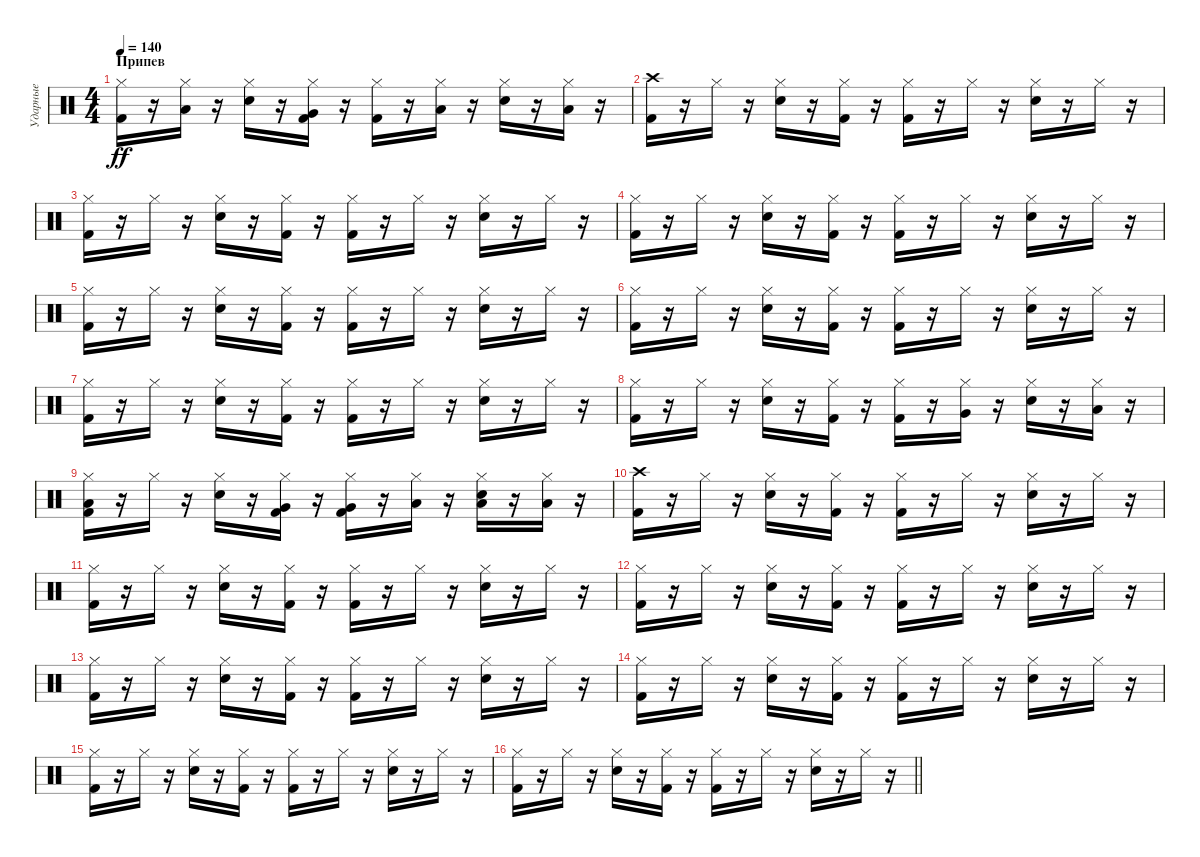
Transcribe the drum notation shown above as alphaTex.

\track ("Ударные" "Ударные") {instrument percussion}
\staff {score}
\articulation defaults
\ts (4 4)
\section ("" "Припев")
\tempo 140
\clef neutral
\ks c
("Hi-Hat (closed)" "Kick (hit) 2").16{dy ff} r.16 ("Hi-Hat (closed)" "Low Tom (hit)").16 r.16 ("Hi-Hat (closed)" "Snare (hit) 2").16 r.16 ("Hi-Hat (closed)" "Kick (hit) 2" "Very Low Tom (hit)").16 r.16 ("Hi-Hat (closed)" "Kick (hit) 2").16 r.16 ("Hi-Hat (closed)" "Low Floor Tom (hit)").16 r.16 ("Hi-Hat (closed)" "Snare (hit) 2").16 r.16 ("Hi-Hat (closed)" "Low Floor Tom (hit)").16 r.16 |
("Crash high (hit)" "Kick (hit) 2").16 r.16 "Hi-Hat (closed)".16 r.16 ("Hi-Hat (closed)" "Snare (hit) 2").16 r.16 ("Hi-Hat (closed)" "Kick (hit) 2").16 r.16 ("Hi-Hat (closed)" "Kick (hit) 2").16 r.16 "Hi-Hat (closed)".16 r.16 ("Hi-Hat (closed)" "Snare (hit) 2").16 r.16 "Hi-Hat (closed)".16 r.16 |
("Hi-Hat (closed)" "Kick (hit) 2").16 r.16 "Hi-Hat (closed)".16 r.16 ("Hi-Hat (closed)" "Snare (hit) 2").16 r.16 ("Hi-Hat (closed)" "Kick (hit) 2").16 r.16 ("Hi-Hat (closed)" "Kick (hit) 2").16 r.16 "Hi-Hat (closed)".16 r.16 ("Hi-Hat (closed)" "Snare (hit) 2").16 r.16 "Hi-Hat (closed)".16 r.16 |
("Hi-Hat (closed)" "Kick (hit) 2").16 r.16 "Hi-Hat (closed)".16 r.16 ("Hi-Hat (closed)" "Snare (hit) 2").16 r.16 ("Hi-Hat (closed)" "Kick (hit) 2").16 r.16 ("Hi-Hat (closed)" "Kick (hit) 2").16 r.16 "Hi-Hat (closed)".16 r.16 ("Hi-Hat (closed)" "Snare (hit) 2").16 r.16 "Hi-Hat (closed)".16 r.16 |
("Hi-Hat (closed)" "Kick (hit) 2").16 r.16 "Hi-Hat (closed)".16 r.16 ("Hi-Hat (closed)" "Snare (hit) 2").16 r.16 ("Hi-Hat (closed)" "Kick (hit) 2").16 r.16 ("Hi-Hat (closed)" "Kick (hit) 2").16 r.16 "Hi-Hat (closed)".16 r.16 ("Hi-Hat (closed)" "Snare (hit) 2").16 r.16 "Hi-Hat (closed)".16 r.16 |
("Hi-Hat (closed)" "Kick (hit) 2").16 r.16 "Hi-Hat (closed)".16 r.16 ("Hi-Hat (closed)" "Snare (hit) 2").16 r.16 ("Hi-Hat (closed)" "Kick (hit) 2").16 r.16 ("Hi-Hat (closed)" "Kick (hit) 2").16 r.16 "Hi-Hat (closed)".16 r.16 ("Hi-Hat (closed)" "Snare (hit) 2").16 r.16 "Hi-Hat (closed)".16 r.16 |
("Hi-Hat (closed)" "Kick (hit) 2").16 r.16 "Hi-Hat (closed)".16 r.16 ("Hi-Hat (closed)" "Snare (hit) 2").16 r.16 ("Hi-Hat (closed)" "Kick (hit) 2").16 r.16 ("Hi-Hat (closed)" "Kick (hit) 2").16 r.16 "Hi-Hat (closed)".16 r.16 ("Hi-Hat (closed)" "Snare (hit) 2").16 r.16 "Hi-Hat (closed)".16 r.16 |
("Hi-Hat (closed)" "Kick (hit) 2").16 r.16 "Hi-Hat (closed)".16 r.16 ("Hi-Hat (closed)" "Snare (hit) 2").16 r.16 ("Hi-Hat (closed)" "Kick (hit) 2").16 r.16 ("Hi-Hat (closed)" "Kick (hit) 2").16 r.16 ("Hi-Hat (closed)" "Very Low Tom (hit)").16 r.16 ("Hi-Hat (closed)" "Snare (hit) 2").16 r.16 ("Hi-Hat (closed)" "Low Tom (hit)").16 r.16 |
("Hi-Hat (closed)" "Kick (hit) 2" "Low Tom (hit)").16 r.16 "Hi-Hat (closed)".16 r.16 ("Hi-Hat (closed)" "Snare (hit) 2").16 r.16 ("Hi-Hat (closed)" "Kick (hit) 2" "Very Low Tom (hit)").16 r.16 ("Hi-Hat (closed)" "Kick (hit) 2" "Very Low Tom (hit)").16 r.16 ("Hi-Hat (closed)" "Low Floor Tom (hit)").16 r.16 ("Hi-Hat (closed)" "Snare (hit) 2" "Low Floor Tom (hit)").16 r.16 ("Hi-Hat (closed)" "Low Floor Tom (hit)").16 r.16 |
("Crash high (hit)" "Kick (hit) 2").16 r.16 "Hi-Hat (closed)".16 r.16 ("Hi-Hat (closed)" "Snare (hit) 2").16 r.16 ("Hi-Hat (closed)" "Kick (hit) 2").16 r.16 ("Hi-Hat (closed)" "Kick (hit) 2").16 r.16 "Hi-Hat (closed)".16 r.16 ("Hi-Hat (closed)" "Snare (hit) 2").16 r.16 "Hi-Hat (closed)".16 r.16 |
("Hi-Hat (closed)" "Kick (hit) 2").16 r.16 "Hi-Hat (closed)".16 r.16 ("Hi-Hat (closed)" "Snare (hit) 2").16 r.16 ("Hi-Hat (closed)" "Kick (hit) 2").16 r.16 ("Hi-Hat (closed)" "Kick (hit) 2").16 r.16 "Hi-Hat (closed)".16 r.16 ("Hi-Hat (closed)" "Snare (hit) 2").16 r.16 "Hi-Hat (closed)".16 r.16 |
("Hi-Hat (closed)" "Kick (hit) 2").16 r.16 "Hi-Hat (closed)".16 r.16 ("Hi-Hat (closed)" "Snare (hit) 2").16 r.16 ("Hi-Hat (closed)" "Kick (hit) 2").16 r.16 ("Hi-Hat (closed)" "Kick (hit) 2").16 r.16 "Hi-Hat (closed)".16 r.16 ("Hi-Hat (closed)" "Snare (hit) 2").16 r.16 "Hi-Hat (closed)".16 r.16 |
("Hi-Hat (closed)" "Kick (hit) 2").16 r.16 "Hi-Hat (closed)".16 r.16 ("Hi-Hat (closed)" "Snare (hit) 2").16 r.16 ("Hi-Hat (closed)" "Kick (hit) 2").16 r.16 ("Hi-Hat (closed)" "Kick (hit) 2").16 r.16 "Hi-Hat (closed)".16 r.16 ("Hi-Hat (closed)" "Snare (hit) 2").16 r.16 "Hi-Hat (closed)".16 r.16 |
("Hi-Hat (closed)" "Kick (hit) 2").16 r.16 "Hi-Hat (closed)".16 r.16 ("Hi-Hat (closed)" "Snare (hit) 2").16 r.16 ("Hi-Hat (closed)" "Kick (hit) 2").16 r.16 ("Hi-Hat (closed)" "Kick (hit) 2").16 r.16 "Hi-Hat (closed)".16 r.16 ("Hi-Hat (closed)" "Snare (hit) 2").16 r.16 "Hi-Hat (closed)".16 r.16 |
("Hi-Hat (closed)" "Kick (hit) 2").16 r.16 "Hi-Hat (closed)".16 r.16 ("Hi-Hat (closed)" "Snare (hit) 2").16 r.16 ("Hi-Hat (closed)" "Kick (hit) 2").16 r.16 ("Hi-Hat (closed)" "Kick (hit) 2").16 r.16 "Hi-Hat (closed)".16 r.16 ("Hi-Hat (closed)" "Snare (hit) 2").16 r.16 "Hi-Hat (closed)".16 r.16 |
\barLineRight lightlight
("Hi-Hat (closed)" "Kick (hit) 2").16 r.16 "Hi-Hat (closed)".16 r.16 ("Hi-Hat (closed)" "Snare (hit) 2").16 r.16 ("Hi-Hat (closed)" "Kick (hit) 2").16 r.16 ("Hi-Hat (closed)" "Kick (hit) 2").16 r.16 "Hi-Hat (closed)".16 r.16 ("Hi-Hat (closed)" "Snare (hit) 2").16 r.16 "Hi-Hat (closed)".16 r.16
